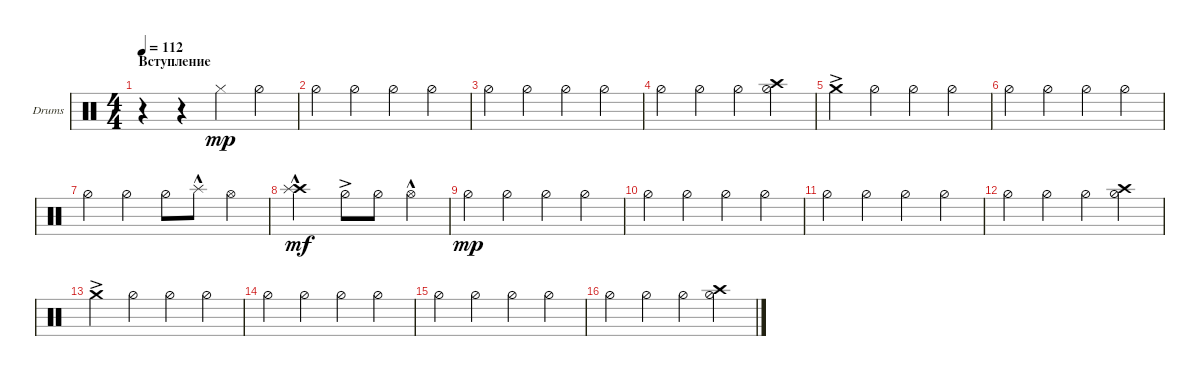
\defaultSystemsLayout 4
\bracketExtendMode groupsimilarinstruments
\firstSystemTrackNameOrientation horizontal
\otherSystemsTrackNameOrientation horizontal
\track ("Drumkit" "Drums") {instrument percussion}
\staff {score}
\articulation defaults
\ts (4 4)
\section ("" "Вступление")
\tempo 112
\clef neutral
\scale
0.472222
\ks c
r.4{dy mp} r.4 "Hi-Hat (closed)".4 "Hi-Hat (half)".4 |
\scale
0.263889 "Hi-Hat (half)".4 "Hi-Hat (half)".4 "Hi-Hat (half)".4 "Hi-Hat (half)".4 |
\scale
0.263889 "Hi-Hat (half)".4 "Hi-Hat (half)".4 "Hi-Hat (half)".4 "Hi-Hat (half)".4 |
\scale
0.333333 "Hi-Hat (half)".4 "Hi-Hat (half)".4 "Hi-Hat (half)".4 ("Hi-Hat (half)" "Crash high (hit)").4 |
\scale
0.333333 "Crash medium (hit)"{ac}.4 "Hi-Hat (half)".4 "Hi-Hat (half)".4 "Hi-Hat (half)".4 |
\scale
0.333333 "Hi-Hat (half)".4 "Hi-Hat (half)".4 "Hi-Hat (half)".4 "Hi-Hat (half)".4 |
\scale
0.333333 "Hi-Hat (half)".4 "Hi-Hat (half)".4 "Hi-Hat (half)".8 "Splash (hit)"{hac}.8 "Hi-Hat (open)".4 |
\scale
0.333333 ("Crash high (hit)" "Splash (hit)"{hac}).2{dy mf} "Hi-Hat (half)"{ac}.8 "Hi-Hat (half)".8 "Hi-Hat (open)"{hac}.4 |
\scale
0.333333 "Hi-Hat (half)".4{dy mp} "Hi-Hat (half)".4 "Hi-Hat (half)".4 "Hi-Hat (half)".4 |
\scale
0.333333 "Hi-Hat (half)".4 "Hi-Hat (half)".4 "Hi-Hat (half)".4 "Hi-Hat (half)".4 |
\scale
0.333333 "Hi-Hat (half)".4 "Hi-Hat (half)".4 "Hi-Hat (half)".4 "Hi-Hat (half)".4 |
\scale
0.333333 "Hi-Hat (half)".4 "Hi-Hat (half)".4 "Hi-Hat (half)".4 ("Hi-Hat (half)" "Crash high (hit)").4 |
\scale
0.333333 "Crash medium (hit)"{ac}.4 "Hi-Hat (half)".4 "Hi-Hat (half)".4 "Hi-Hat (half)".4 |
\scale
0.333333 "Hi-Hat (half)".4 "Hi-Hat (half)".4 "Hi-Hat (half)".4 "Hi-Hat (half)".4 |
\scale
0.333333 "Hi-Hat (half)".4 "Hi-Hat (half)".4 "Hi-Hat (half)".4 "Hi-Hat (half)".4 |
\scale
0.333333 "Hi-Hat (half)".4 "Hi-Hat (half)".4 "Hi-Hat (half)".4 ("Hi-Hat (half)" "Crash high (hit)").4
